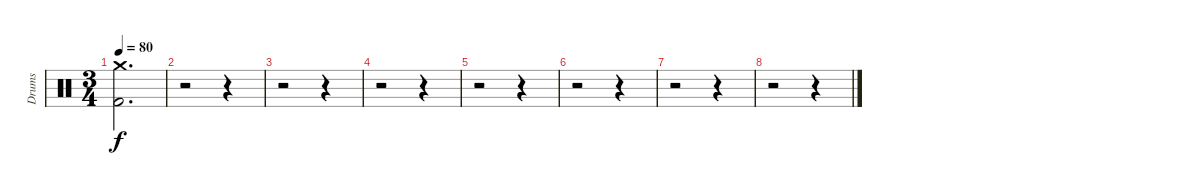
\track ("Drums" "Drums") {instrument percussion}
\staff {score}
\articulation defaults
\ts (3 4)
\tempo 80
\clef neutral
\ks c
("Crash medium (hit)" "Kick (hit) 2").2{d dy f} |
r.2 r.4 |
r.2 r.4 |
r.2 r.4 |
r.2 r.4 |
r.2 r.4 |
r.2 r.4 |
r.2 r.4
